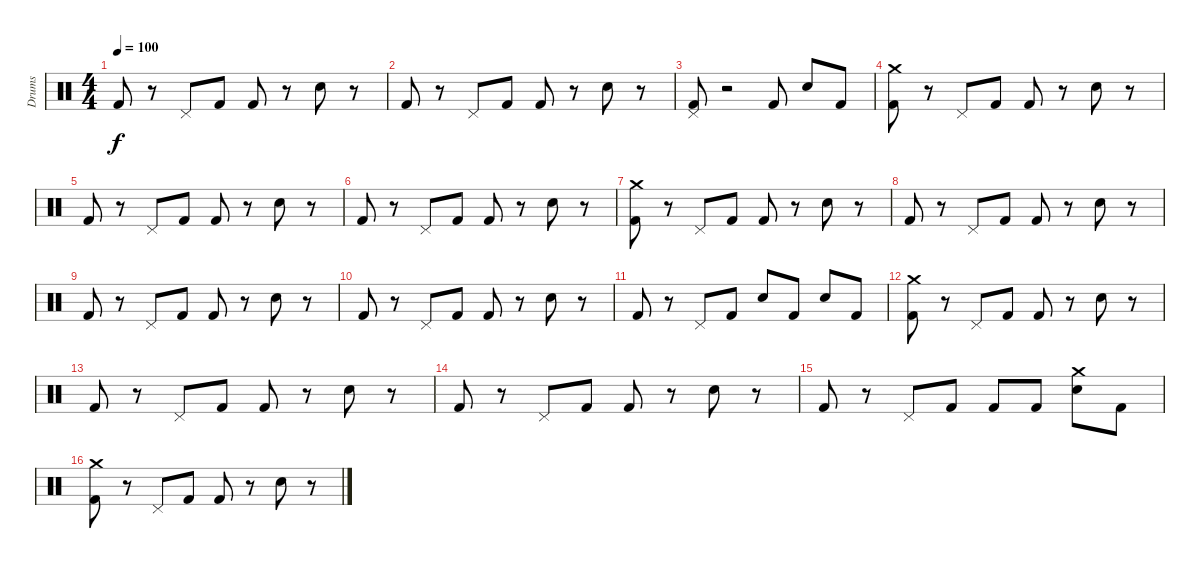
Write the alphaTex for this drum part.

\track ("Drums" "Drums") {instrument percussion}
\staff {score}
\articulation defaults
\ts (4 4)
\tempo 100
\clef neutral
\ks c "Kick (hit) 2".8{dy f}
r.8 "Pedal Hi-Hat (hit)".8 "Kick (hit) 2".8 "Kick (hit) 2".8 r.8 "Snare (hit) 2".8 r.8 |
"Kick (hit) 2".8 r.8 "Pedal Hi-Hat (hit)".8 "Kick (hit) 2".8 "Kick (hit) 2".8 r.8 "Snare (hit) 2".8 r.8 |
("Pedal Hi-Hat (hit)" "Kick (hit) 2").8 r.2 "Kick (hit) 2".8 "Snare (hit) 2".8 "Kick (hit) 2".8 |
("Crash medium (hit)" "Kick (hit) 2").8 r.8 "Pedal Hi-Hat (hit)".8 "Kick (hit) 2".8 "Kick (hit) 2".8 r.8 "Snare (hit) 2".8 r.8 |
"Kick (hit) 2".8 r.8 "Pedal Hi-Hat (hit)".8 "Kick (hit) 2".8 "Kick (hit) 2".8 r.8 "Snare (hit) 2".8 r.8 |
"Kick (hit) 2".8 r.8 "Pedal Hi-Hat (hit)".8 "Kick (hit) 2".8 "Kick (hit) 2".8 r.8 "Snare (hit) 2".8 r.8 |
("Crash medium (hit)" "Kick (hit) 2").8 r.8 "Pedal Hi-Hat (hit)".8 "Kick (hit) 2".8 "Kick (hit) 2".8 r.8 "Snare (hit) 2".8 r.8 |
"Kick (hit) 2".8 r.8 "Pedal Hi-Hat (hit)".8 "Kick (hit) 2".8 "Kick (hit) 2".8 r.8 "Snare (hit) 2".8 r.8 |
"Kick (hit) 2".8 r.8 "Pedal Hi-Hat (hit)".8 "Kick (hit) 2".8 "Kick (hit) 2".8 r.8 "Snare (hit) 2".8 r.8 |
"Kick (hit) 2".8 r.8 "Pedal Hi-Hat (hit)".8 "Kick (hit) 2".8 "Kick (hit) 2".8 r.8 "Snare (hit) 2".8 r.8 |
"Kick (hit) 2".8 r.8 "Pedal Hi-Hat (hit)".8 "Kick (hit) 2".8 "Snare (hit) 2".8 "Kick (hit) 2".8 "Snare (hit) 2".8 "Kick (hit) 2".8 |
("Crash medium (hit)" "Kick (hit) 2").8 r.8 "Pedal Hi-Hat (hit)".8 "Kick (hit) 2".8 "Kick (hit) 2".8 r.8 "Snare (hit) 2".8 r.8 |
"Kick (hit) 2".8 r.8 "Pedal Hi-Hat (hit)".8 "Kick (hit) 2".8 "Kick (hit) 2".8 r.8 "Snare (hit) 2".8 r.8 |
"Kick (hit) 2".8 r.8 "Pedal Hi-Hat (hit)".8 "Kick (hit) 2".8 "Kick (hit) 2".8 r.8 "Snare (hit) 2".8 r.8 |
"Kick (hit) 2".8 r.8 "Pedal Hi-Hat (hit)".8 "Kick (hit) 2".8 "Kick (hit) 2".8 "Kick (hit) 2".8 ("Crash medium (hit)" "Snare (hit) 2").8 "Kick (hit) 2".8 |
("Crash medium (hit)" "Kick (hit) 2").8 r.8 "Pedal Hi-Hat (hit)".8 "Kick (hit) 2".8 "Kick (hit) 2".8 r.8 "Snare (hit) 2".8 r.8
